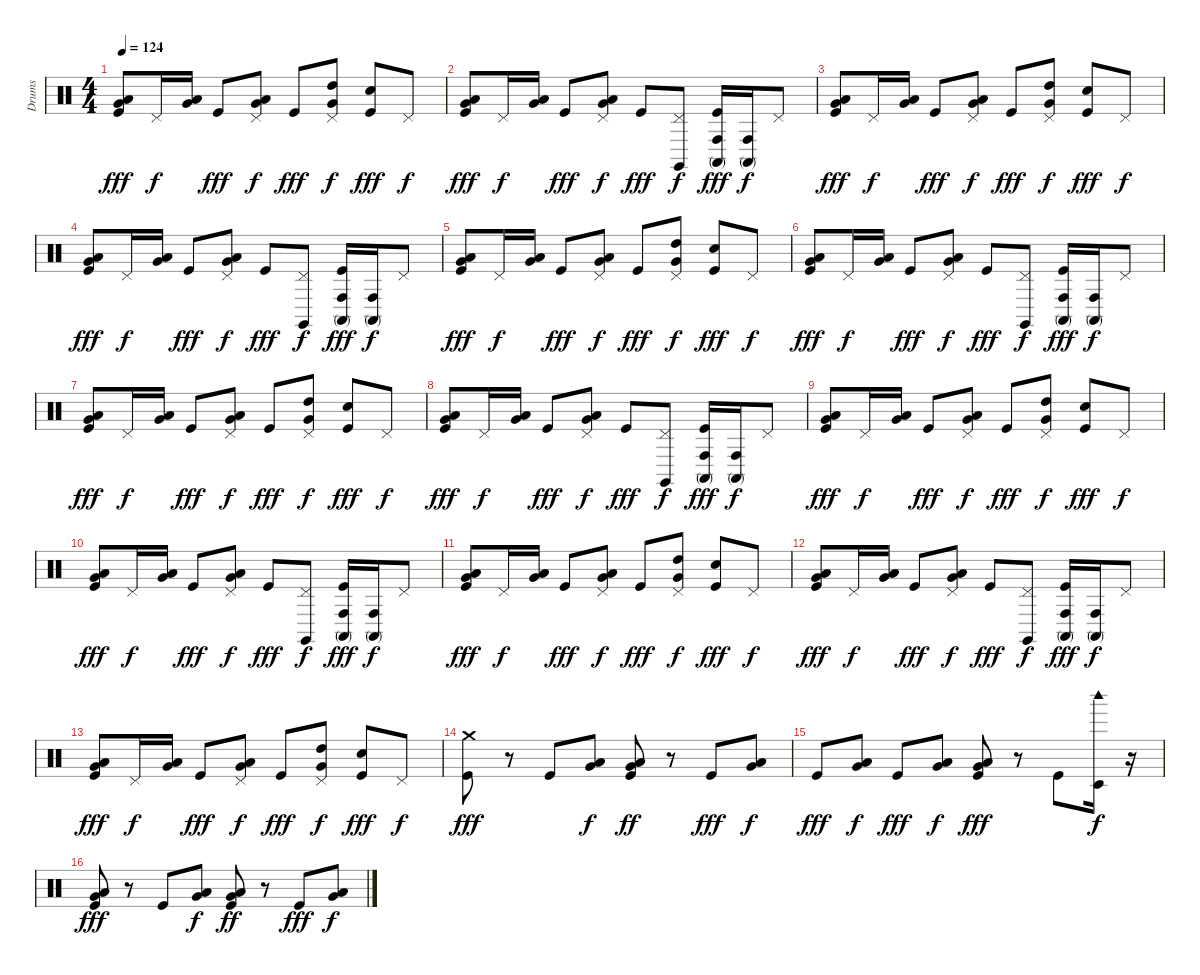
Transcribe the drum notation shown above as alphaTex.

\track ("Drums" "Drums") {instrument percussion}
\staff {score}
\articulation defaults
\ts (4 4)
\tempo 124
\clef neutral
\ks c
("Kick (hit)" "Very Low Tom (hit)" "Low Tom (hit)").8{dy fff} "Pedal Hi-Hat (hit)".16{dy f} ("Very Low Tom (hit)" "Low Tom (hit)").16 "Kick (hit)".8{dy fff} ("Pedal Hi-Hat (hit)" "Very Low Tom (hit)" "Low Tom (hit)").8{dy f} "Kick (hit)".8{dy fff} ("Pedal Hi-Hat (hit)" "High Tom (hit)" "Very Low Tom (hit)").8{dy f} ("Kick (hit)" "Electric Snare (hit)").8{dy fff} "Pedal Hi-Hat (hit)".8{dy f} |
("Kick (hit)" "Very Low Tom (hit)" "Low Tom (hit)").8{dy fff} "Pedal Hi-Hat (hit)".16{dy f} ("Very Low Tom (hit)" "Low Tom (hit)").16 "Kick (hit)".8{dy fff} ("Pedal Hi-Hat (hit)" "Very Low Tom (hit)" "Low Tom (hit)").8{dy f} "Kick (hit)".8{dy fff} ("Pedal Hi-Hat (hit)" "Claves (hit)").8{dy f} ("Kick (hit)" "Conga high (mute)" "Conga high (hit)").16{dy fff} ("Conga high (mute)" "Conga high (hit)").16{dy f} "Pedal Hi-Hat (hit)".8 |
("Kick (hit)" "Very Low Tom (hit)" "Low Tom (hit)").8{dy fff} "Pedal Hi-Hat (hit)".16{dy f} ("Very Low Tom (hit)" "Low Tom (hit)").16 "Kick (hit)".8{dy fff} ("Pedal Hi-Hat (hit)" "Very Low Tom (hit)" "Low Tom (hit)").8{dy f} "Kick (hit)".8{dy fff} ("Pedal Hi-Hat (hit)" "High Tom (hit)" "Very Low Tom (hit)").8{dy f} ("Kick (hit)" "Electric Snare (hit)").8{dy fff} "Pedal Hi-Hat (hit)".8{dy f} |
("Kick (hit)" "Very Low Tom (hit)" "Low Tom (hit)").8{dy fff} "Pedal Hi-Hat (hit)".16{dy f} ("Very Low Tom (hit)" "Low Tom (hit)").16 "Kick (hit)".8{dy fff} ("Pedal Hi-Hat (hit)" "Very Low Tom (hit)" "Low Tom (hit)").8{dy f} "Kick (hit)".8{dy fff} ("Pedal Hi-Hat (hit)" "Claves (hit)").8{dy f} ("Kick (hit)" "Conga high (mute)" "Conga high (hit)").16{dy fff} ("Conga high (mute)" "Conga high (hit)").16{dy f} "Pedal Hi-Hat (hit)".8 |
("Kick (hit)" "Very Low Tom (hit)" "Low Tom (hit)").8{dy fff} "Pedal Hi-Hat (hit)".16{dy f} ("Very Low Tom (hit)" "Low Tom (hit)").16 "Kick (hit)".8{dy fff} ("Pedal Hi-Hat (hit)" "Very Low Tom (hit)" "Low Tom (hit)").8{dy f} "Kick (hit)".8{dy fff} ("Pedal Hi-Hat (hit)" "High Tom (hit)" "Very Low Tom (hit)").8{dy f} ("Kick (hit)" "Electric Snare (hit)").8{dy fff} "Pedal Hi-Hat (hit)".8{dy f} |
("Kick (hit)" "Very Low Tom (hit)" "Low Tom (hit)").8{dy fff} "Pedal Hi-Hat (hit)".16{dy f} ("Very Low Tom (hit)" "Low Tom (hit)").16 "Kick (hit)".8{dy fff} ("Pedal Hi-Hat (hit)" "Very Low Tom (hit)" "Low Tom (hit)").8{dy f} "Kick (hit)".8{dy fff} ("Pedal Hi-Hat (hit)" "Claves (hit)").8{dy f} ("Kick (hit)" "Conga high (mute)" "Conga high (hit)").16{dy fff} ("Conga high (mute)" "Conga high (hit)").16{dy f} "Pedal Hi-Hat (hit)".8 |
("Kick (hit)" "Very Low Tom (hit)" "Low Tom (hit)").8{dy fff} "Pedal Hi-Hat (hit)".16{dy f} ("Very Low Tom (hit)" "Low Tom (hit)").16 "Kick (hit)".8{dy fff} ("Pedal Hi-Hat (hit)" "Very Low Tom (hit)" "Low Tom (hit)").8{dy f} "Kick (hit)".8{dy fff} ("Pedal Hi-Hat (hit)" "High Tom (hit)" "Very Low Tom (hit)").8{dy f} ("Kick (hit)" "Electric Snare (hit)").8{dy fff} "Pedal Hi-Hat (hit)".8{dy f} |
("Kick (hit)" "Very Low Tom (hit)" "Low Tom (hit)").8{dy fff} "Pedal Hi-Hat (hit)".16{dy f} ("Very Low Tom (hit)" "Low Tom (hit)").16 "Kick (hit)".8{dy fff} ("Pedal Hi-Hat (hit)" "Very Low Tom (hit)" "Low Tom (hit)").8{dy f} "Kick (hit)".8{dy fff} ("Pedal Hi-Hat (hit)" "Claves (hit)").8{dy f} ("Kick (hit)" "Conga high (mute)" "Conga high (hit)").16{dy fff} ("Conga high (mute)" "Conga high (hit)").16{dy f} "Pedal Hi-Hat (hit)".8 |
("Kick (hit)" "Very Low Tom (hit)" "Low Tom (hit)").8{dy fff} "Pedal Hi-Hat (hit)".16{dy f} ("Very Low Tom (hit)" "Low Tom (hit)").16 "Kick (hit)".8{dy fff} ("Pedal Hi-Hat (hit)" "Very Low Tom (hit)" "Low Tom (hit)").8{dy f} "Kick (hit)".8{dy fff} ("Pedal Hi-Hat (hit)" "High Tom (hit)" "Very Low Tom (hit)").8{dy f} ("Kick (hit)" "Electric Snare (hit)").8{dy fff} "Pedal Hi-Hat (hit)".8{dy f} |
("Kick (hit)" "Very Low Tom (hit)" "Low Tom (hit)").8{dy fff} "Pedal Hi-Hat (hit)".16{dy f} ("Very Low Tom (hit)" "Low Tom (hit)").16 "Kick (hit)".8{dy fff} ("Pedal Hi-Hat (hit)" "Very Low Tom (hit)" "Low Tom (hit)").8{dy f} "Kick (hit)".8{dy fff} ("Pedal Hi-Hat (hit)" "Claves (hit)").8{dy f} ("Kick (hit)" "Conga high (mute)" "Conga high (hit)").16{dy fff} ("Conga high (mute)" "Conga high (hit)").16{dy f} "Pedal Hi-Hat (hit)".8 |
("Kick (hit)" "Very Low Tom (hit)" "Low Tom (hit)").8{dy fff} "Pedal Hi-Hat (hit)".16{dy f} ("Very Low Tom (hit)" "Low Tom (hit)").16 "Kick (hit)".8{dy fff} ("Pedal Hi-Hat (hit)" "Very Low Tom (hit)" "Low Tom (hit)").8{dy f} "Kick (hit)".8{dy fff} ("Pedal Hi-Hat (hit)" "High Tom (hit)" "Very Low Tom (hit)").8{dy f} ("Kick (hit)" "Electric Snare (hit)").8{dy fff} "Pedal Hi-Hat (hit)".8{dy f} |
("Kick (hit)" "Very Low Tom (hit)" "Low Tom (hit)").8{dy fff} "Pedal Hi-Hat (hit)".16{dy f} ("Very Low Tom (hit)" "Low Tom (hit)").16 "Kick (hit)".8{dy fff} ("Pedal Hi-Hat (hit)" "Very Low Tom (hit)" "Low Tom (hit)").8{dy f} "Kick (hit)".8{dy fff} ("Pedal Hi-Hat (hit)" "Claves (hit)").8{dy f} ("Kick (hit)" "Conga high (mute)" "Conga high (hit)").16{dy fff} ("Conga high (mute)" "Conga high (hit)").16{dy f} "Pedal Hi-Hat (hit)".8 |
("Kick (hit)" "Very Low Tom (hit)" "Low Tom (hit)").8{dy fff} "Pedal Hi-Hat (hit)".16{dy f} ("Very Low Tom (hit)" "Low Tom (hit)").16 "Kick (hit)".8{dy fff} ("Pedal Hi-Hat (hit)" "Very Low Tom (hit)" "Low Tom (hit)").8{dy f} "Kick (hit)".8{dy fff} ("Pedal Hi-Hat (hit)" "High Tom (hit)" "Very Low Tom (hit)").8{dy f} ("Kick (hit)" "Electric Snare (hit)").8{dy fff} "Pedal Hi-Hat (hit)".8{dy f} |
("Kick (hit)" "Crash medium (hit)").8{dy fff} r.8 "Kick (hit)".8 ("Very Low Tom (hit)" "Low Tom (hit)").8{dy f} ("Kick (hit)" "Very Low Tom (hit)" "Low Tom (hit)").8{dy ff} r.8 "Kick (hit)".8{dy fff} ("Very Low Tom (hit)" "Low Tom (hit)").8{dy f} |
"Kick (hit)".8{dy fff} ("Very Low Tom (hit)" "Low Tom (hit)").8{dy f} "Kick (hit)".8{dy fff} ("Very Low Tom (hit)" "Low Tom (hit)").8{dy f} ("Kick (hit)" "Very Low Tom (hit)" "Low Tom (hit)").8{dy fff} r.8 "Kick (hit)".8 ("Timbale low (hit)" "Woodblock high (hit)").16{dy f} r.16 |
("Kick (hit)" "Very Low Tom (hit)" "Low Tom (hit)").8{dy fff} r.8 "Kick (hit)".8 ("Very Low Tom (hit)" "Low Tom (hit)").8{dy f} ("Kick (hit)" "Very Low Tom (hit)" "Low Tom (hit)").8{dy ff} r.8 "Kick (hit)".8{dy fff} ("Very Low Tom (hit)" "Low Tom (hit)").8{dy f}
